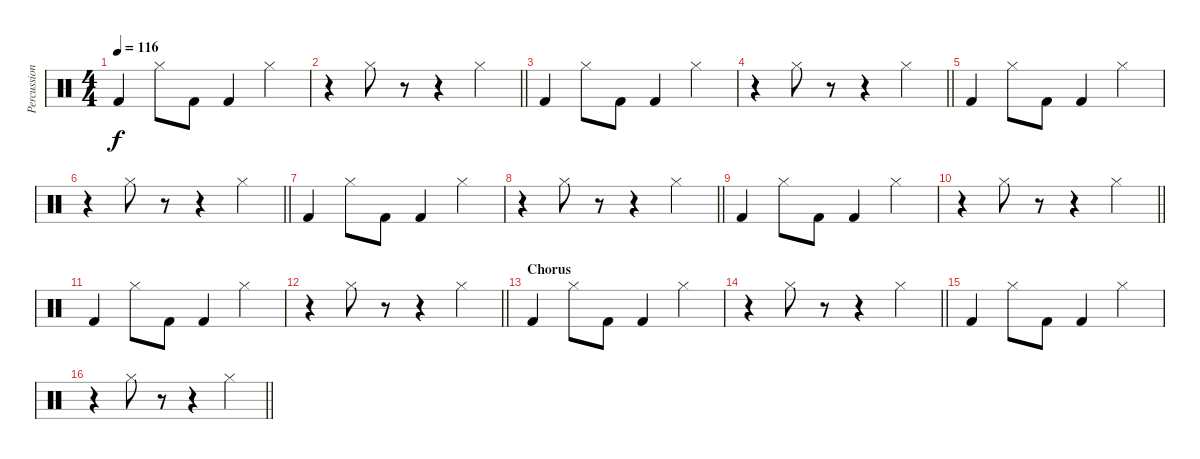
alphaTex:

\track ("Percussion" "Percussion") {instrument percussion}
\staff {score}
\articulation defaults
\ts (4 4)
\tempo 116
\clef neutral
\ks c "Kick (hit) 2".4{dy f} "Hi-Hat (closed)".8 "Kick (hit) 2".8 "Kick (hit) 2".4 "Hi-Hat (closed)".4
|
\barLineRight lightlight
r.4 "Hi-Hat (closed)".8 r.8 r.4 "Hi-Hat (closed)".4 |
"Kick (hit) 2".4 "Hi-Hat (closed)".8 "Kick (hit) 2".8 "Kick (hit) 2".4 "Hi-Hat (closed)".4 |
\barLineRight lightlight
r.4 "Hi-Hat (closed)".8 r.8 r.4 "Hi-Hat (closed)".4 |
"Kick (hit) 2".4 "Hi-Hat (closed)".8 "Kick (hit) 2".8 "Kick (hit) 2".4 "Hi-Hat (closed)".4 |
\barLineRight lightlight
r.4 "Hi-Hat (closed)".8 r.8 r.4 "Hi-Hat (closed)".4 |
"Kick (hit) 2".4 "Hi-Hat (closed)".8 "Kick (hit) 2".8 "Kick (hit) 2".4 "Hi-Hat (closed)".4 |
\barLineRight lightlight
r.4 "Hi-Hat (closed)".8 r.8 r.4 "Hi-Hat (closed)".4 |
"Kick (hit) 2".4 "Hi-Hat (closed)".8 "Kick (hit) 2".8 "Kick (hit) 2".4 "Hi-Hat (closed)".4 |
\barLineRight lightlight
r.4 "Hi-Hat (closed)".8 r.8 r.4 "Hi-Hat (closed)".4 |
"Kick (hit) 2".4 "Hi-Hat (closed)".8 "Kick (hit) 2".8 "Kick (hit) 2".4 "Hi-Hat (closed)".4 |
\barLineRight lightlight
r.4 "Hi-Hat (closed)".8 r.8 r.4 "Hi-Hat (closed)".4 |
\section ("" "Chorus")
"Kick (hit) 2".4 "Hi-Hat (closed)".8 "Kick (hit) 2".8 "Kick (hit) 2".4 "Hi-Hat (closed)".4 |
\barLineRight lightlight
r.4 "Hi-Hat (closed)".8 r.8 r.4 "Hi-Hat (closed)".4 |
"Kick (hit) 2".4 "Hi-Hat (closed)".8 "Kick (hit) 2".8 "Kick (hit) 2".4 "Hi-Hat (closed)".4 |
\barLineRight lightlight
r.4 "Hi-Hat (closed)".8 r.8 r.4 "Hi-Hat (closed)".4
